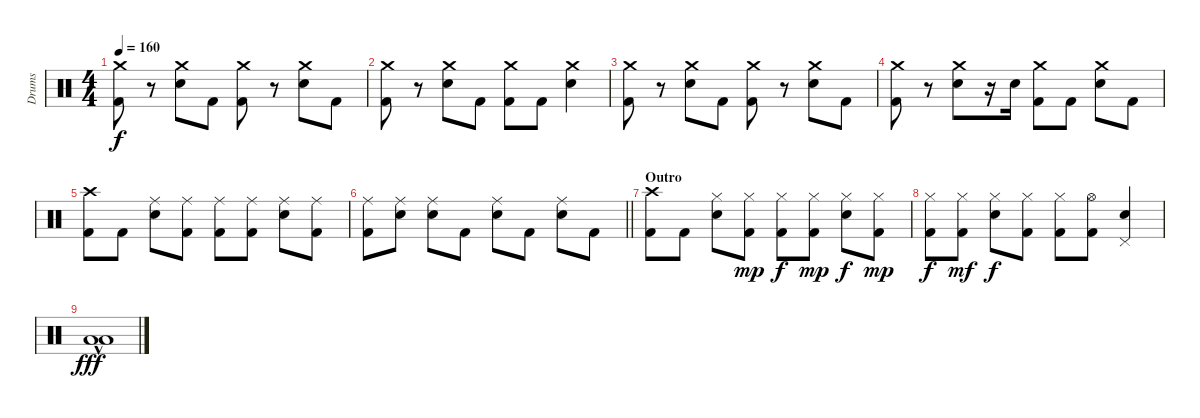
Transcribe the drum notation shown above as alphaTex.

\track ("Drums" "Drums") {instrument percussion}
\staff {score}
\articulation defaults
\ts (4 4)
\tempo 160
\clef neutral
\ks c
("Crash medium (hit)" "Kick (hit) 2").8{dy f} r.8 ("Crash medium (hit)" "Electric Snare (hit)").8 "Kick (hit) 2".8 ("Crash medium (hit)" "Kick (hit) 2").8 r.8 ("Crash medium (hit)" "Electric Snare (hit)").8 "Kick (hit) 2".8 |
("Crash medium (hit)" "Kick (hit) 2").8 r.8 ("Crash medium (hit)" "Electric Snare (hit)").8 "Kick (hit) 2".8 ("Crash medium (hit)" "Kick (hit) 2").8 "Kick (hit) 2".8 ("Crash medium (hit)" "Electric Snare (hit)").4 |
("Crash medium (hit)" "Kick (hit) 2").8 r.8 ("Crash medium (hit)" "Electric Snare (hit)").8 "Kick (hit) 2".8 ("Crash medium (hit)" "Kick (hit) 2").8 r.8 ("Crash medium (hit)" "Electric Snare (hit)").8 "Kick (hit) 2".8 |
("Crash medium (hit)" "Kick (hit) 2").8 r.8 ("Crash medium (hit)" "Electric Snare (hit)").8 r.16 "Electric Snare (hit)".16 ("Crash medium (hit)" "Kick (hit) 2").8 "Kick (hit) 2".8 ("Crash medium (hit)" "Electric Snare (hit)").8 "Kick (hit) 2".8 |
("Crash high (hit)" "Kick (hit) 2").8 "Kick (hit) 2".8 ("Ride (middle)" "Electric Snare (hit)").8 ("Ride (middle)" "Kick (hit) 2").8 ("Ride (middle)" "Kick (hit) 2").8 ("Ride (middle)" "Kick (hit) 2").8 ("Ride (middle)" "Electric Snare (hit)").8 ("Ride (middle)" "Kick (hit) 2").8 |
\barLineRight lightlight
("Ride (middle)" "Kick (hit) 2").8 ("Ride (middle)" "Electric Snare (hit)").8 ("Ride (middle)" "Electric Snare (hit)").8 "Kick (hit) 2".8 ("Ride (middle)" "Electric Snare (hit)").8 "Kick (hit) 2".8 ("Ride (middle)" "Electric Snare (hit)").8 "Kick (hit) 2".8 |
\section ("" "Outro")
("Crash high (hit)" "Kick (hit) 2").8 "Kick (hit) 2".8 ("Hi-Hat (closed)" "Electric Snare (hit)").8 ("Hi-Hat (closed)" "Kick (hit) 2").8{dy mp} ("Hi-Hat (closed)" "Kick (hit) 2").8{dy f} ("Hi-Hat (closed)" "Kick (hit) 2").8{dy mp} ("Hi-Hat (closed)" "Electric Snare (hit)").8{dy f} ("Hi-Hat (closed)" "Kick (hit) 2").8{dy mp} |
("Hi-Hat (closed)" "Kick (hit) 2").8{dy f} ("Hi-Hat (closed)" "Kick (hit) 2").8{dy mf} ("Hi-Hat (closed)" "Electric Snare (hit)").8{dy f} ("Hi-Hat (closed)" "Kick (hit) 2").8 ("Hi-Hat (closed)" "Kick (hit) 2").8 ("Hi-Hat (open)" "Kick (hit) 2").8 ("Pedal Hi-Hat (hit)" "Electric Snare (hit)").4 |
("Low Floor Tom (hit)"{hac} "Low Tom (hit)"{hac}).1{dy fff}
